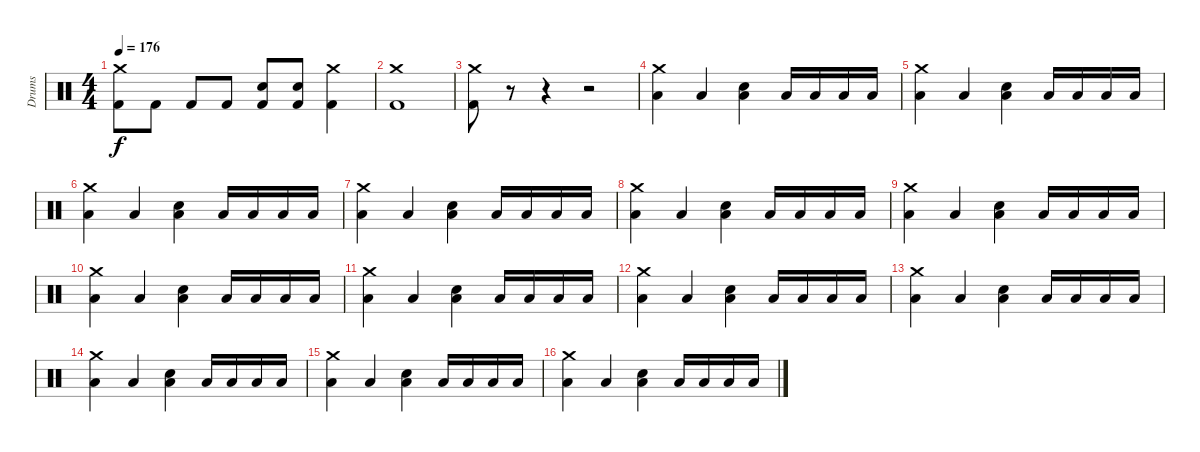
\track ("Drums" "Drums") {instrument percussion}
\staff {score}
\articulation defaults
\ts (4 4)
\tempo 176
\clef neutral
\ks c
("Crash medium (hit)" "Kick (hit) 2").8{dy f} "Kick (hit) 2".8 "Kick (hit) 2".8 "Kick (hit) 2".8 ("Snare (hit) 2" "Kick (hit) 2").8 ("Snare (hit) 2" "Kick (hit) 2").8 ("Crash medium (hit)" "Kick (hit) 2").4 |
("Crash medium (hit)" "Kick (hit) 2").1 |
("Crash medium (hit)" "Kick (hit) 2").8 r.8 r.4 r.2 |
("Crash medium (hit)" "Low Tom (hit)").4 "Low Tom (hit)".4 ("Snare (hit) 2" "Low Tom (hit)").4 "Low Tom (hit)".16 "Low Tom (hit)".16 "Low Tom (hit)".16 "Low Tom (hit)".16 |
("Crash medium (hit)" "Low Tom (hit)").4 "Low Tom (hit)".4 ("Snare (hit) 2" "Low Tom (hit)").4 "Low Tom (hit)".16 "Low Tom (hit)".16 "Low Tom (hit)".16 "Low Tom (hit)".16 |
("Crash medium (hit)" "Low Tom (hit)").4 "Low Tom (hit)".4 ("Snare (hit) 2" "Low Tom (hit)").4 "Low Tom (hit)".16 "Low Tom (hit)".16 "Low Tom (hit)".16 "Low Tom (hit)".16 |
("Crash medium (hit)" "Low Tom (hit)").4 "Low Tom (hit)".4 ("Snare (hit) 2" "Low Tom (hit)").4 "Low Tom (hit)".16 "Low Tom (hit)".16 "Low Tom (hit)".16 "Low Tom (hit)".16 |
("Crash medium (hit)" "Low Tom (hit)").4 "Low Tom (hit)".4 ("Snare (hit) 2" "Low Tom (hit)").4 "Low Tom (hit)".16 "Low Tom (hit)".16 "Low Tom (hit)".16 "Low Tom (hit)".16 |
("Crash medium (hit)" "Low Tom (hit)").4 "Low Tom (hit)".4 ("Snare (hit) 2" "Low Tom (hit)").4 "Low Tom (hit)".16 "Low Tom (hit)".16 "Low Tom (hit)".16 "Low Tom (hit)".16 |
("Crash medium (hit)" "Low Tom (hit)").4 "Low Tom (hit)".4 ("Snare (hit) 2" "Low Tom (hit)").4 "Low Tom (hit)".16 "Low Tom (hit)".16 "Low Tom (hit)".16 "Low Tom (hit)".16 |
("Crash medium (hit)" "Low Tom (hit)").4 "Low Tom (hit)".4 ("Snare (hit) 2" "Low Tom (hit)").4 "Low Tom (hit)".16 "Low Tom (hit)".16 "Low Tom (hit)".16 "Low Tom (hit)".16 |
("Crash medium (hit)" "Low Tom (hit)").4 "Low Tom (hit)".4 ("Snare (hit) 2" "Low Tom (hit)").4 "Low Tom (hit)".16 "Low Tom (hit)".16 "Low Tom (hit)".16 "Low Tom (hit)".16 |
("Crash medium (hit)" "Low Tom (hit)").4 "Low Tom (hit)".4 ("Snare (hit) 2" "Low Tom (hit)").4 "Low Tom (hit)".16 "Low Tom (hit)".16 "Low Tom (hit)".16 "Low Tom (hit)".16 |
("Crash medium (hit)" "Low Tom (hit)").4 "Low Tom (hit)".4 ("Snare (hit) 2" "Low Tom (hit)").4 "Low Tom (hit)".16 "Low Tom (hit)".16 "Low Tom (hit)".16 "Low Tom (hit)".16 |
("Crash medium (hit)" "Low Tom (hit)").4 "Low Tom (hit)".4 ("Snare (hit) 2" "Low Tom (hit)").4 "Low Tom (hit)".16 "Low Tom (hit)".16 "Low Tom (hit)".16 "Low Tom (hit)".16 |
("Crash medium (hit)" "Low Tom (hit)").4 "Low Tom (hit)".4 ("Snare (hit) 2" "Low Tom (hit)").4 "Low Tom (hit)".16 "Low Tom (hit)".16 "Low Tom (hit)".16 "Low Tom (hit)".16
